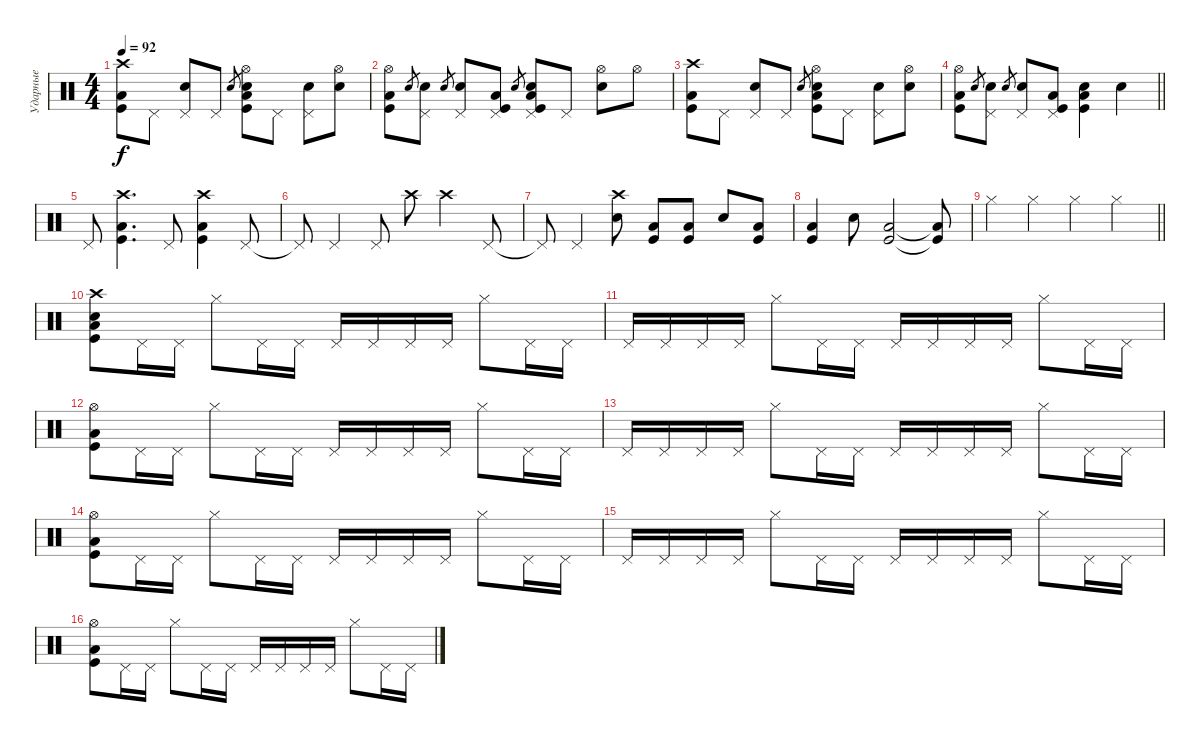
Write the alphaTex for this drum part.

\track ("Ударные" "Ударные") {instrument percussion}
\staff {score}
\articulation defaults
\ts (4 4)
\tempo 92
\clef neutral
\ks c
("Crash high (hit)" "Low Tom (hit)" "Kick (hit)").8{dy f} "Pedal Hi-Hat (hit)".8 ("Pedal Hi-Hat (hit)" "Electric Snare (hit)").8 "Pedal Hi-Hat (hit)".8 "Snare (hit) 2".8{gr} ("Hi-Hat (open)" "Electric Snare (hit)" "Low Tom (hit)" "Kick (hit)").8 "Pedal Hi-Hat (hit)".8 ("Pedal Hi-Hat (hit)" "Electric Snare (hit)").8 ("Hi-Hat (open)" "Electric Snare (hit)").8 |
("Hi-Hat (open)" "Low Tom (hit)" "Kick (hit)").8 "Snare (hit) 2".8{gr} ("Pedal Hi-Hat (hit)" "Electric Snare (hit)").8 "Snare (hit) 2".8{gr} ("Pedal Hi-Hat (hit)" "Electric Snare (hit)").8 ("Pedal Hi-Hat (hit)" "Low Tom (hit)" "Kick (hit)").8 "Snare (hit) 2".8{gr} ("Pedal Hi-Hat (hit)" "Snare (hit) 2" "Low Tom (hit)" "Kick (hit)").8 "Pedal Hi-Hat (hit)".8 ("Hi-Hat (open)" "Electric Snare (hit)").8 "Hi-Hat (open)".8 |
("Crash high (hit)" "Low Tom (hit)" "Kick (hit)").8 "Pedal Hi-Hat (hit)".8 ("Pedal Hi-Hat (hit)" "Electric Snare (hit)").8 "Pedal Hi-Hat (hit)".8 "Snare (hit) 2".8{gr} ("Hi-Hat (open)" "Electric Snare (hit)" "Low Tom (hit)" "Kick (hit)").8 "Pedal Hi-Hat (hit)".8 ("Pedal Hi-Hat (hit)" "Electric Snare (hit)").8 ("Hi-Hat (open)" "Electric Snare (hit)").8 |
\barLineRight lightlight
("Hi-Hat (open)" "Low Tom (hit)" "Kick (hit)").8 "Snare (hit) 2".8{gr} ("Pedal Hi-Hat (hit)" "Electric Snare (hit)").8 "Snare (hit) 2".8{gr} ("Pedal Hi-Hat (hit)" "Electric Snare (hit)").8 ("Pedal Hi-Hat (hit)" "Low Tom (hit)" "Kick (hit)").8 ("Electric Snare (hit)" "Low Tom (hit)" "Kick (hit)").4 "Electric Snare (hit)".4 |
"Pedal Hi-Hat (hit)".8 ("Crash high (hit)" "Low Tom (hit)" "Kick (hit)").4{d} "Pedal Hi-Hat (hit)".8 ("Crash high (hit)" "Low Tom (hit)" "Kick (hit)").4 "Pedal Hi-Hat (hit)".8 |
"Pedal Hi-Hat (hit)"{t}.8 "Pedal Hi-Hat (hit)".4 "Pedal Hi-Hat (hit)".8 "Crash high (hit)".8 "Crash high (hit)".4 "Pedal Hi-Hat (hit)".8 |
"Pedal Hi-Hat (hit)"{t}.8 "Pedal Hi-Hat (hit)".4 ("Crash high (hit)" "Electric Snare (hit)").8 ("Low Tom (hit)" "Kick (hit)").8 ("Low Tom (hit)" "Kick (hit)").8 "Electric Snare (hit)".8 ("Low Tom (hit)" "Kick (hit)").8 |
("Low Tom (hit)" "Kick (hit)").4 "Electric Snare (hit)".8 ("Low Tom (hit)" "Kick (hit)").2 ("Low Tom (hit)"{t} "Kick (hit)"{t}).8 |
\barLineRight lightlight "Hi-Hat (closed)".4 "Hi-Hat (closed)".4 "Hi-Hat (closed)".4 "Hi-Hat (closed)".4
|
("Crash high (hit)" "Electric Snare (hit)" "Low Tom (hit)" "Kick (hit)").8 "Pedal Hi-Hat (hit)".16 "Pedal Hi-Hat (hit)".16 "Hi-Hat (closed)".8 "Pedal Hi-Hat (hit)".16 "Pedal Hi-Hat (hit)".16 "Pedal Hi-Hat (hit)".16 "Pedal Hi-Hat (hit)".16 "Pedal Hi-Hat (hit)".16 "Pedal Hi-Hat (hit)".16 "Hi-Hat (closed)".8 "Pedal Hi-Hat (hit)".16 "Pedal Hi-Hat (hit)".16 |
"Pedal Hi-Hat (hit)".16 "Pedal Hi-Hat (hit)".16 "Pedal Hi-Hat (hit)".16 "Pedal Hi-Hat (hit)".16 "Hi-Hat (closed)".8 "Pedal Hi-Hat (hit)".16 "Pedal Hi-Hat (hit)".16 "Pedal Hi-Hat (hit)".16 "Pedal Hi-Hat (hit)".16 "Pedal Hi-Hat (hit)".16 "Pedal Hi-Hat (hit)".16 "Hi-Hat (closed)".8 "Pedal Hi-Hat (hit)".16 "Pedal Hi-Hat (hit)".16 |
("Hi-Hat (open)" "Low Tom (hit)" "Kick (hit)").8 "Pedal Hi-Hat (hit)".16 "Pedal Hi-Hat (hit)".16 "Hi-Hat (closed)".8 "Pedal Hi-Hat (hit)".16 "Pedal Hi-Hat (hit)".16 "Pedal Hi-Hat (hit)".16 "Pedal Hi-Hat (hit)".16 "Pedal Hi-Hat (hit)".16 "Pedal Hi-Hat (hit)".16 "Hi-Hat (closed)".8 "Pedal Hi-Hat (hit)".16 "Pedal Hi-Hat (hit)".16 |
"Pedal Hi-Hat (hit)".16 "Pedal Hi-Hat (hit)".16 "Pedal Hi-Hat (hit)".16 "Pedal Hi-Hat (hit)".16 "Hi-Hat (closed)".8 "Pedal Hi-Hat (hit)".16 "Pedal Hi-Hat (hit)".16 "Pedal Hi-Hat (hit)".16 "Pedal Hi-Hat (hit)".16 "Pedal Hi-Hat (hit)".16 "Pedal Hi-Hat (hit)".16 "Hi-Hat (closed)".8 "Pedal Hi-Hat (hit)".16 "Pedal Hi-Hat (hit)".16 |
("Hi-Hat (open)" "Low Tom (hit)" "Kick (hit)").8 "Pedal Hi-Hat (hit)".16 "Pedal Hi-Hat (hit)".16 "Hi-Hat (closed)".8 "Pedal Hi-Hat (hit)".16 "Pedal Hi-Hat (hit)".16 "Pedal Hi-Hat (hit)".16 "Pedal Hi-Hat (hit)".16 "Pedal Hi-Hat (hit)".16 "Pedal Hi-Hat (hit)".16 "Hi-Hat (closed)".8 "Pedal Hi-Hat (hit)".16 "Pedal Hi-Hat (hit)".16 |
"Pedal Hi-Hat (hit)".16 "Pedal Hi-Hat (hit)".16 "Pedal Hi-Hat (hit)".16 "Pedal Hi-Hat (hit)".16 "Hi-Hat (closed)".8 "Pedal Hi-Hat (hit)".16 "Pedal Hi-Hat (hit)".16 "Pedal Hi-Hat (hit)".16 "Pedal Hi-Hat (hit)".16 "Pedal Hi-Hat (hit)".16 "Pedal Hi-Hat (hit)".16 "Hi-Hat (closed)".8 "Pedal Hi-Hat (hit)".16 "Pedal Hi-Hat (hit)".16 |
("Hi-Hat (open)" "Low Tom (hit)" "Kick (hit)").8 "Pedal Hi-Hat (hit)".16 "Pedal Hi-Hat (hit)".16 "Hi-Hat (closed)".8 "Pedal Hi-Hat (hit)".16 "Pedal Hi-Hat (hit)".16 "Pedal Hi-Hat (hit)".16 "Pedal Hi-Hat (hit)".16 "Pedal Hi-Hat (hit)".16 "Pedal Hi-Hat (hit)".16 "Hi-Hat (closed)".8 "Pedal Hi-Hat (hit)".16 "Pedal Hi-Hat (hit)".16
